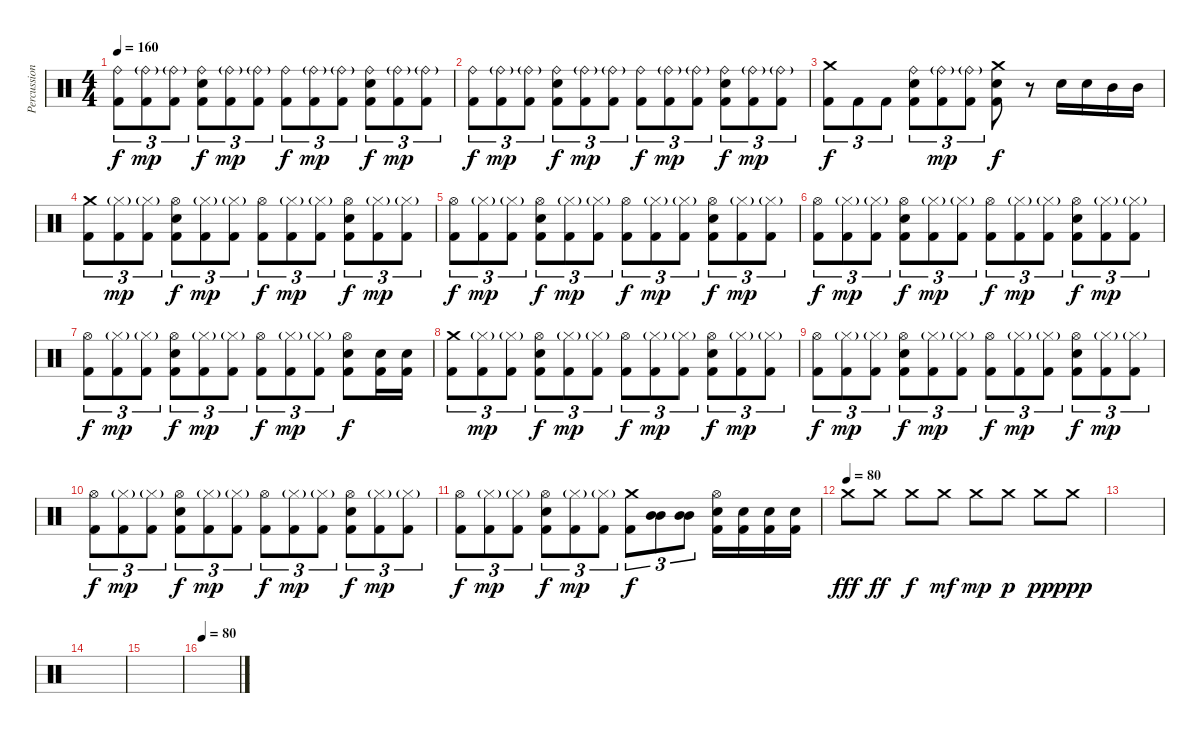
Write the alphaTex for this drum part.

\track ("Percussions" "Percussion") {instrument percussion}
\staff {score}
\articulation defaults
\ts (4 4)
\tempo 160
\clef neutral
\ks c
("Ride (bell)" "Kick (hit) 2").8{tu (3 2) dy f} ("Ride (bell)"{g} "Kick (hit) 2").8{tu (3 2) dy mp} ("Ride (bell)"{g} "Kick (hit) 2").8{tu (3 2)} ("Ride (bell)" "Electric Snare (hit)" "Kick (hit) 2").8{tu (3 2) dy f} ("Ride (bell)"{g} "Kick (hit) 2").8{tu (3 2) dy mp} ("Ride (bell)"{g} "Kick (hit) 2").8{tu (3 2)} ("Ride (bell)" "Kick (hit) 2").8{tu (3 2) dy f} ("Ride (bell)"{g} "Kick (hit) 2").8{tu (3 2) dy mp} ("Ride (bell)"{g} "Kick (hit) 2").8{tu (3 2)} ("Ride (bell)" "Electric Snare (hit)" "Kick (hit) 2").8{tu (3 2) dy f} ("Ride (bell)"{g} "Kick (hit) 2").8{tu (3 2) dy mp} ("Ride (bell)"{g} "Kick (hit) 2").8{tu (3 2)} |
("Ride (bell)" "Kick (hit) 2").8{tu (3 2) dy f} ("Ride (bell)"{g} "Kick (hit) 2").8{tu (3 2) dy mp} ("Ride (bell)"{g} "Kick (hit) 2").8{tu (3 2)} ("Ride (bell)" "Electric Snare (hit)" "Kick (hit) 2").8{tu (3 2) dy f} ("Ride (bell)"{g} "Kick (hit) 2").8{tu (3 2) dy mp} ("Ride (bell)"{g} "Kick (hit) 2").8{tu (3 2)} ("Ride (bell)" "Kick (hit) 2").8{tu (3 2) dy f} ("Ride (bell)"{g} "Kick (hit) 2").8{tu (3 2) dy mp} ("Ride (bell)"{g} "Kick (hit) 2").8{tu (3 2)} ("Ride (bell)" "Electric Snare (hit)" "Kick (hit) 2").8{tu (3 2) dy f} ("Ride (bell)"{g} "Kick (hit) 2").8{tu (3 2) dy mp} ("Ride (bell)"{g} "Kick (hit) 2").8{tu (3 2)} |
("Crash medium (hit)" "Kick (hit) 2").8{tu (3 2) dy f} "Kick (hit) 2".8{tu (3 2)} "Kick (hit) 2".8{tu (3 2)} ("Ride (bell)" "Electric Snare (hit)" "Kick (hit) 2").8{tu (3 2)} ("Ride (bell)"{g} "Kick (hit) 2").8{tu (3 2) dy mp} ("Ride (bell)"{g} "Kick (hit) 2").8{tu (3 2)} ("Crash medium (hit)" "Electric Snare (hit)" "Kick (hit) 2").8{dy f} r.8 "Electric Snare (hit)".16 "Electric Snare (hit)".16 "Mid Tom (hit)".16 "Mid Tom (hit)".16 |
("Crash medium (hit)" "Kick (hit) 2").8{tu (3 2)} ("Hi-Hat (closed)"{g} "Kick (hit) 2").8{tu (3 2) dy mp} ("Hi-Hat (closed)"{g} "Kick (hit) 2").8{tu (3 2)} ("Hi-Hat (open)" "Electric Snare (hit)" "Kick (hit) 2").8{tu (3 2) dy f} ("Hi-Hat (closed)"{g} "Kick (hit) 2").8{tu (3 2) dy mp} ("Hi-Hat (closed)"{g} "Kick (hit) 2").8{tu (3 2)} ("Hi-Hat (open)" "Kick (hit) 2").8{tu (3 2) dy f} ("Hi-Hat (closed)"{g} "Kick (hit) 2").8{tu (3 2) dy mp} ("Hi-Hat (closed)"{g} "Kick (hit) 2").8{tu (3 2)} ("Hi-Hat (open)" "Electric Snare (hit)" "Kick (hit) 2").8{tu (3 2) dy f} ("Hi-Hat (closed)"{g} "Kick (hit) 2").8{tu (3 2) dy mp} ("Hi-Hat (closed)"{g} "Kick (hit) 2").8{tu (3 2)} |
("Hi-Hat (open)" "Kick (hit) 2").8{tu (3 2) dy f} ("Hi-Hat (closed)"{g} "Kick (hit) 2").8{tu (3 2) dy mp} ("Hi-Hat (closed)"{g} "Kick (hit) 2").8{tu (3 2)} ("Hi-Hat (open)" "Electric Snare (hit)" "Kick (hit) 2").8{tu (3 2) dy f} ("Hi-Hat (closed)"{g} "Kick (hit) 2").8{tu (3 2) dy mp} ("Hi-Hat (closed)"{g} "Kick (hit) 2").8{tu (3 2)} ("Hi-Hat (open)" "Kick (hit) 2").8{tu (3 2) dy f} ("Hi-Hat (closed)"{g} "Kick (hit) 2").8{tu (3 2) dy mp} ("Hi-Hat (closed)"{g} "Kick (hit) 2").8{tu (3 2)} ("Hi-Hat (open)" "Electric Snare (hit)" "Kick (hit) 2").8{tu (3 2) dy f} ("Hi-Hat (closed)"{g} "Kick (hit) 2").8{tu (3 2) dy mp} ("Hi-Hat (closed)"{g} "Kick (hit) 2").8{tu (3 2)} |
("Hi-Hat (open)" "Kick (hit) 2").8{tu (3 2) dy f} ("Hi-Hat (closed)"{g} "Kick (hit) 2").8{tu (3 2) dy mp} ("Hi-Hat (closed)"{g} "Kick (hit) 2").8{tu (3 2)} ("Hi-Hat (open)" "Electric Snare (hit)" "Kick (hit) 2").8{tu (3 2) dy f} ("Hi-Hat (closed)"{g} "Kick (hit) 2").8{tu (3 2) dy mp} ("Hi-Hat (closed)"{g} "Kick (hit) 2").8{tu (3 2)} ("Hi-Hat (open)" "Kick (hit) 2").8{tu (3 2) dy f} ("Hi-Hat (closed)"{g} "Kick (hit) 2").8{tu (3 2) dy mp} ("Hi-Hat (closed)"{g} "Kick (hit) 2").8{tu (3 2)} ("Hi-Hat (open)" "Electric Snare (hit)" "Kick (hit) 2").8{tu (3 2) dy f} ("Hi-Hat (closed)"{g} "Kick (hit) 2").8{tu (3 2) dy mp} ("Hi-Hat (closed)"{g} "Kick (hit) 2").8{tu (3 2)} |
("Hi-Hat (open)" "Kick (hit) 2").8{tu (3 2) dy f} ("Hi-Hat (closed)"{g} "Kick (hit) 2").8{tu (3 2) dy mp} ("Hi-Hat (closed)"{g} "Kick (hit) 2").8{tu (3 2)} ("Hi-Hat (open)" "Electric Snare (hit)" "Kick (hit) 2").8{tu (3 2) dy f} ("Hi-Hat (closed)"{g} "Kick (hit) 2").8{tu (3 2) dy mp} ("Hi-Hat (closed)"{g} "Kick (hit) 2").8{tu (3 2)} ("Hi-Hat (open)" "Kick (hit) 2").8{tu (3 2) dy f} ("Hi-Hat (closed)"{g} "Kick (hit) 2").8{tu (3 2) dy mp} ("Hi-Hat (closed)"{g} "Kick (hit) 2").8{tu (3 2)} ("Hi-Hat (open)" "Electric Snare (hit)" "Kick (hit) 2").8{dy f} ("Electric Snare (hit)" "Kick (hit) 2").16 ("Electric Snare (hit)" "Kick (hit) 2").16 |
("Crash medium (hit)" "Kick (hit) 2").8{tu (3 2)} ("Hi-Hat (closed)"{g} "Kick (hit) 2").8{tu (3 2) dy mp} ("Hi-Hat (closed)"{g} "Kick (hit) 2").8{tu (3 2)} ("Hi-Hat (open)" "Electric Snare (hit)" "Kick (hit) 2").8{tu (3 2) dy f} ("Hi-Hat (closed)"{g} "Kick (hit) 2").8{tu (3 2) dy mp} ("Hi-Hat (closed)"{g} "Kick (hit) 2").8{tu (3 2)} ("Hi-Hat (open)" "Kick (hit) 2").8{tu (3 2) dy f} ("Hi-Hat (closed)"{g} "Kick (hit) 2").8{tu (3 2) dy mp} ("Hi-Hat (closed)"{g} "Kick (hit) 2").8{tu (3 2)} ("Hi-Hat (open)" "Electric Snare (hit)" "Kick (hit) 2").8{tu (3 2) dy f} ("Hi-Hat (closed)"{g} "Kick (hit) 2").8{tu (3 2) dy mp} ("Hi-Hat (closed)"{g} "Kick (hit) 2").8{tu (3 2)} |
("Hi-Hat (open)" "Kick (hit) 2").8{tu (3 2) dy f} ("Hi-Hat (closed)"{g} "Kick (hit) 2").8{tu (3 2) dy mp} ("Hi-Hat (closed)"{g} "Kick (hit) 2").8{tu (3 2)} ("Hi-Hat (open)" "Electric Snare (hit)" "Kick (hit) 2").8{tu (3 2) dy f} ("Hi-Hat (closed)"{g} "Kick (hit) 2").8{tu (3 2) dy mp} ("Hi-Hat (closed)"{g} "Kick (hit) 2").8{tu (3 2)} ("Hi-Hat (open)" "Kick (hit) 2").8{tu (3 2) dy f} ("Hi-Hat (closed)"{g} "Kick (hit) 2").8{tu (3 2) dy mp} ("Hi-Hat (closed)"{g} "Kick (hit) 2").8{tu (3 2)} ("Hi-Hat (open)" "Electric Snare (hit)" "Kick (hit) 2").8{tu (3 2) dy f} ("Hi-Hat (closed)"{g} "Kick (hit) 2").8{tu (3 2) dy mp} ("Hi-Hat (closed)"{g} "Kick (hit) 2").8{tu (3 2)} |
("Hi-Hat (open)" "Kick (hit) 2").8{tu (3 2) dy f} ("Hi-Hat (closed)"{g} "Kick (hit) 2").8{tu (3 2) dy mp} ("Hi-Hat (closed)"{g} "Kick (hit) 2").8{tu (3 2)} ("Hi-Hat (open)" "Electric Snare (hit)" "Kick (hit) 2").8{tu (3 2) dy f} ("Hi-Hat (closed)"{g} "Kick (hit) 2").8{tu (3 2) dy mp} ("Hi-Hat (closed)"{g} "Kick (hit) 2").8{tu (3 2)} ("Hi-Hat (open)" "Kick (hit) 2").8{tu (3 2) dy f} ("Hi-Hat (closed)"{g} "Kick (hit) 2").8{tu (3 2) dy mp} ("Hi-Hat (closed)"{g} "Kick (hit) 2").8{tu (3 2)} ("Hi-Hat (open)" "Electric Snare (hit)" "Kick (hit) 2").8{tu (3 2) dy f} ("Hi-Hat (closed)"{g} "Kick (hit) 2").8{tu (3 2) dy mp} ("Hi-Hat (closed)"{g} "Kick (hit) 2").8{tu (3 2)} |
("Hi-Hat (open)" "Kick (hit) 2").8{tu (3 2) dy f} ("Hi-Hat (closed)"{g} "Kick (hit) 2").8{tu (3 2) dy mp} ("Hi-Hat (closed)"{g} "Kick (hit) 2").8{tu (3 2)} ("Hi-Hat (open)" "Electric Snare (hit)" "Kick (hit) 2").8{tu (3 2) dy f} ("Hi-Hat (closed)"{g} "Kick (hit) 2").8{tu (3 2) dy mp} ("Hi-Hat (closed)"{g} "Kick (hit) 2").8{tu (3 2)} ("Crash medium (hit)" "Kick (hit) 2").8{tu (3 2) dy f} ("Mid Tom (hit)" "Mid Tom (hit)").8{tu (3 2)} ("Mid Tom (hit)" "Mid Tom (hit)").8{tu (3 2)} ("Hi-Hat (open)" "Electric Snare (hit)" "Kick (hit) 2").16 ("Electric Snare (hit)" "Kick (hit) 2").16 ("Snare (hit) 2" "Kick (hit) 2").16 ("Snare (hit) 2" "Kick (hit) 2").16 |
\tempo (80)
"Crash medium (hit)".8{dy fff} "Crash medium (hit)".8{dy ff} "Crash medium (hit)".8{dy f} "Crash medium (hit)".8{dy mf} "Crash medium (hit)".8{dy mp} "Crash medium (hit)".8{dy p} "Crash medium (hit)".8{dy pp} "Crash medium (hit)".8{dy ppp} |
|
|
|
\tempo 80
